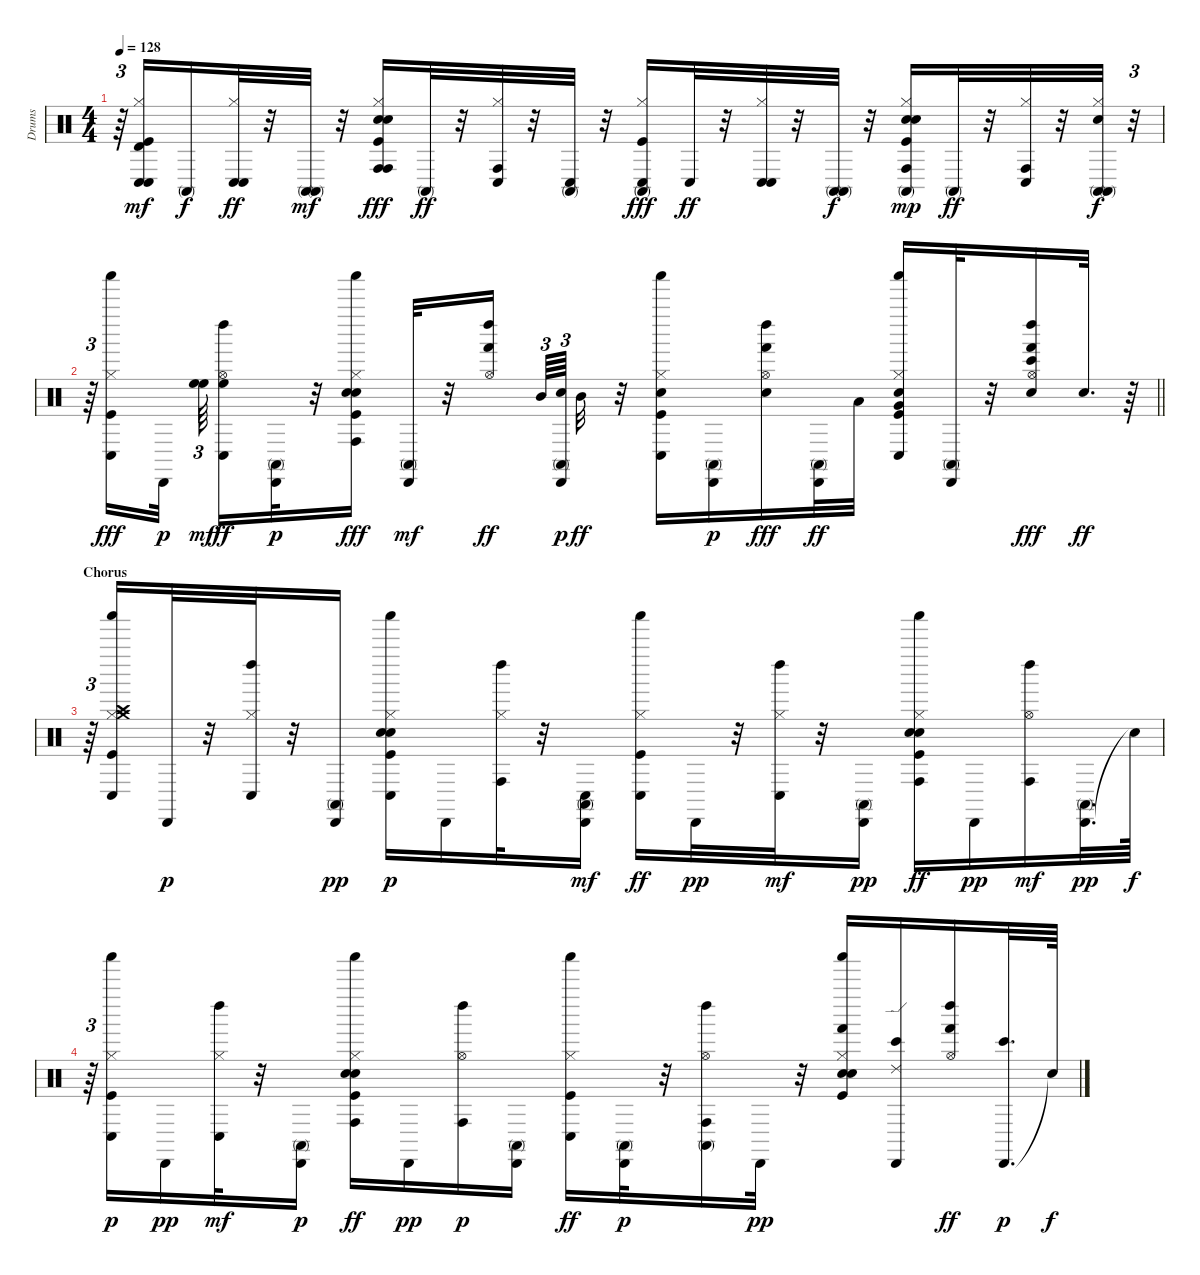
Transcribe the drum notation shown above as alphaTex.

\track ("Drums" "Drums") {instrument percussion}
\staff {score}
\articulation defaults
\ts (4 4)
\tempo 128
\clef neutral
\ks c
r.64{tu (3 2) dy f} ("Kick (hit)" "Hi-Hat (closed)" "Conga low (hit)" "Conga low (hit)" "Timbale high (hit)").16{dy mf} "Conga high (mute)".16{dy f} ("Hi-Hat (closed)" "Conga low (hit)" "Conga low (hit)").32{dy ff} r.32 ("Conga high (mute)" "Conga high (mute)").32{dy mf} r.32 ("Kick (hit)" "Snare (hit) 2" "Hand Clap (hit)" "Hi-Hat (closed)" "Conga high (hit)" "Conga high (hit)").16{dy fff} "Conga high (mute)".32{dy ff} r.32 ("Hi-Hat (closed)" "Conga low (hit)" "Conga high (hit)").32 r.32 ("Conga low (hit)" "Conga high (mute)").32 r.32 ("Kick (hit)" "Hi-Hat (closed)" "Conga high (mute)" "Conga low (hit)").16{dy fff} "Conga low (hit)".32{dy ff} r.32 ("Hi-Hat (closed)" "Conga low (hit)" "Conga low (hit)").32 r.32 ("Conga high (mute)" "Conga high (mute)").32{dy f} r.32 ("Kick (hit)" "Snare (hit) 2" "Hand Clap (hit)" "Hi-Hat (closed)" "Conga high (hit)" "Conga high (mute)").16{dy mp} "Conga high (mute)".32{dy ff} r.32 ("Hi-Hat (closed)" "Conga low (hit)" "Conga high (hit)").32 r.32 ("Snare (hit) 2" "Hi-Hat (closed)" "Conga high (mute)" "Conga high (mute)").32{dy f} r.32{tu (3 2)} |
\barLineRight lightlight
r.64{tu (3 2)} ("Kick (hit)" "Hi-Hat (closed)" "Shaker (hit)" "Conga low (hit)").16{dy fff} "Cabasa (hit)".32{dy p beam splitsecondary} ("High Floor Tom (hit)" "High Floor Tom (hit)").64{tu (3 2) dy mf beam splitsecondary} ("Hi-Hat (open)" "Left Maraca (hit)" "High Floor Tom (hit)" "Conga low (hit)").16{dy ff} ("Cabasa (hit)" "Conga high (mute)").32{dy p} r.32 ("Kick (hit)" "Snare (hit) 2" "Hand Clap (hit)" "Hi-Hat (closed)" "Shaker (hit)" "Conga high (hit)").16{dy fff} ("Cabasa (hit)" "Conga high (mute)").32{dy mf} r.32 ("Hi-Hat (open)" "Left Maraca (hit)" "Hand (hit)").16{dy ff beam splitsecondary} "Mid Tom (hit)".64{tu (3 2)} ("Snare (hit) 2" "Cabasa (hit)" "Conga high (mute)").64{tu (3 2) dy p beam splitsecondary} "Mid Tom (hit)".32{dy ff} r.32 ("Kick (hit)" "Snare (hit) 2" "Hi-Hat (closed)" "Shaker (hit)" "Conga low (hit)").16 ("Cabasa (hit)" "Conga high (mute)").16{dy p} ("Snare (hit) 2" "Hi-Hat (open)" "Left Maraca (hit)" "Hand (hit)").16{dy fff} ("Cabasa (hit)" "Conga high (mute)").32{dy ff} "Low Tom (hit)".32 ("Kick (hit)" "Hand Clap (hit)" "Hi-Hat (closed)" "Shaker (hit)" "Conga low (hit)" "Very Low Tom (hit)").16 ("Cabasa (hit)" "Conga high (mute)").32 r.32 ("Snare (hit) 2" "Hi-Hat (open)" "Left Maraca (hit)" "Hand (hit)" "Bongo High (hit)").16{dy fff} "Snare (hit) 2".32{d dy ff} r.64 |
\section ("" "Chorus")
r.64{tu (3 2)} ("Kick (hit)" "Hi-Hat (closed)" "Crash medium (hit)" "Crash high (hit)" "Shaker (hit)" "Conga low (hit)").16 "Cabasa (hit)".32{dy p} r.32 ("Hi-Hat (closed)" "Left Maraca (hit)" "Conga low (hit)").32 r.32 ("Cabasa (hit)" "Conga high (mute)").16{dy pp} ("Kick (hit)" "Snare (hit) 2" "Hand Clap (hit)" "Hi-Hat (closed)" "Shaker (hit)" "Conga low (hit)").16{dy p} "Cabasa (hit)".16 ("Hi-Hat (closed)" "Left Maraca (hit)" "Conga high (hit)").32 r.32 ("Cabasa (hit)" "Conga high (mute)" "Conga low (hit)").16{dy mf} ("Kick (hit)" "Hi-Hat (closed)" "Shaker (hit)" "Conga low (hit)").16{dy ff} "Cabasa (hit)".32{dy pp} r.32 ("Hi-Hat (closed)" "Left Maraca (hit)" "Conga low (hit)").32{dy mf} r.32 ("Cabasa (hit)" "Conga high (mute)").16{dy pp} ("Kick (hit)" "Snare (hit) 2" "Hand Clap (hit)" "Hi-Hat (closed)" "Shaker (hit)" "Conga high (hit)").16{dy ff} "Cabasa (hit)".16{dy pp} ("Hi-Hat (open)" "Left Maraca (hit)" "Conga high (hit)").16{dy mf} ("Cabasa (hit)" "Conga high (mute)").32{d dy pp} "Snare (hit)"{t}.64{dy f} |
r.64{tu (3 2)} ("Kick (hit)" "Hi-Hat (closed)" "Shaker (hit)" "Conga low (hit)").16{dy p} "Cabasa (hit)".16{dy pp} ("Hi-Hat (closed)" "Left Maraca (hit)" "Conga low (hit)").32{dy mf} r.32 ("Cabasa (hit)" "Conga high (mute)").16{dy p} ("Kick (hit)" "Snare (hit) 2" "Hand Clap (hit)" "Hi-Hat (closed)" "Shaker (hit)" "Conga high (hit)").16{dy ff} "Cabasa (hit)".16{dy pp} ("Hi-Hat (open)" "Left Maraca (hit)" "Conga high (hit)").16{dy p} ("Cabasa (hit)" "Conga high (mute)").16 ("Kick (hit)" "Hi-Hat (closed)" "Shaker (hit)" "Conga low (hit)").16{dy ff} ("Cabasa (hit)" "Conga high (mute)").32{dy p} r.32 ("Hi-Hat (open)" "Left Maraca (hit)" "Conga high (hit)" "Conga high (mute)").16 "Cabasa (hit)".32{dy pp} r.32 ("Kick (hit)" "Snare (hit) 2" "Hand Clap (hit)" "Hi-Hat (closed)" "Shaker (hit)" "Hand (hit)").16 ("Cabasa (hit)" "Bongo High (hit)" "Ride (edge) 2").16 ("Hi-Hat (open)" "Left Maraca (hit)" "Hand (hit)").16{dy ff} ("Cabasa (hit)" "Bongo High (hit)").32{d dy p} "Snare (hit)"{t}.64{dy f}
